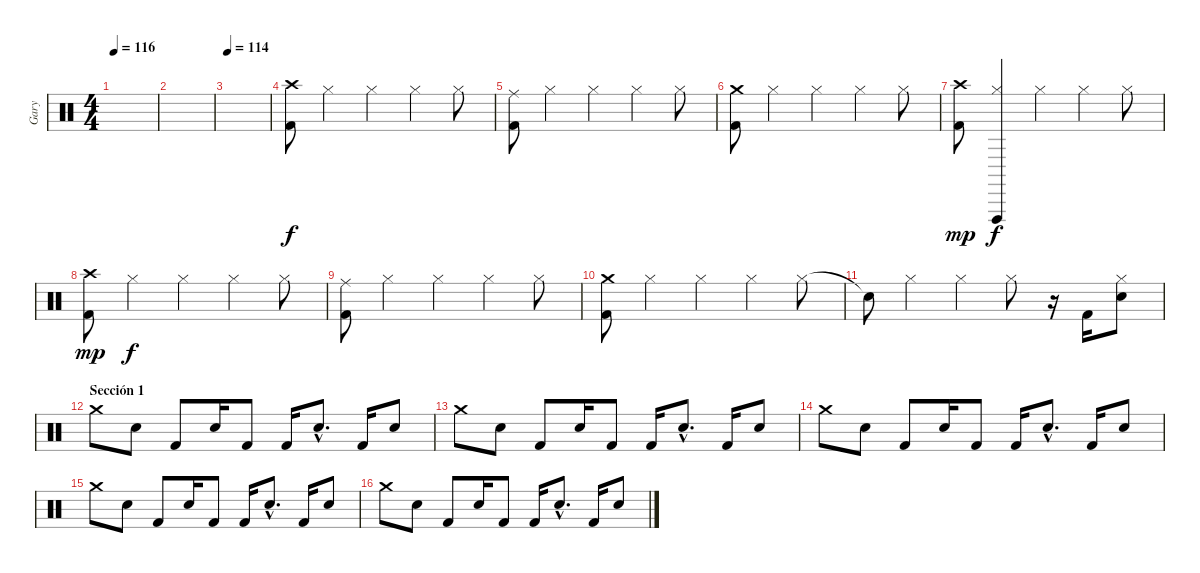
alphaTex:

\track ("Gary" "Gary") {instrument percussion}
\staff {score}
\articulation defaults
\ts (4 4)
\tempo 116
\tempo 106
\tempo 116
\clef neutral
\ks c
|
|
\tempo 114
|
("Crash high (hit)" "Kick (hit) 2").8 "Hi-Hat (closed)".4{dy f} "Hi-Hat (closed)".4 "Hi-Hat (closed)".4 "Hi-Hat (closed)".8 |
("Ride (middle)" "Kick (hit) 2").8 "Hi-Hat (closed)".4 "Hi-Hat (closed)".4 "Hi-Hat (closed)".4 "Hi-Hat (closed)".8 |
("Crash medium (hit)" "Kick (hit) 2").8 "Hi-Hat (closed)".4 "Hi-Hat (closed)".4 "Hi-Hat (closed)".4 "Hi-Hat (closed)".8 |
("Crash high (hit)" "Kick (hit) 2").8{dy mp} ("Hi-Hat (closed)" "Vibraslap (hit)").4{dy f} "Hi-Hat (closed)".4 "Hi-Hat (closed)".4 "Hi-Hat (closed)".8 |
("Crash high (hit)" "Kick (hit) 2").8{dy mp} "Hi-Hat (closed)".4{dy f} "Hi-Hat (closed)".4 "Hi-Hat (closed)".4 "Hi-Hat (closed)".8 |
("Ride (middle)" "Kick (hit) 2").8 "Hi-Hat (closed)".4 "Hi-Hat (closed)".4 "Hi-Hat (closed)".4 "Hi-Hat (closed)".8 |
("Crash medium (hit)" "Kick (hit) 2").8 "Hi-Hat (closed)".4 "Hi-Hat (closed)".4 "Hi-Hat (closed)".4 "Hi-Hat (closed)".8 |
"Snare (hit)"{t}.8 "Hi-Hat (closed)".4 "Hi-Hat (closed)".4 "Hi-Hat (closed)".8 r.16 "Kick (hit) 2".16 ("Hi-Hat (closed)" "Snare (hit) 2").8 |
\section ("" "Sección 1")
"Crash medium (hit)".8 "Snare (hit) 2".8 "Kick (hit) 2".8 "Snare (hit) 2".16 "Kick (hit) 2".8 "Kick (hit) 2".16 "Snare (hit) 2"{hac}.8{d} "Kick (hit) 2".16 "Snare (hit) 2".8 |
"Crash medium (hit)".8 "Snare (hit) 2".8 "Kick (hit) 2".8 "Snare (hit) 2".16 "Kick (hit) 2".8 "Kick (hit) 2".16 "Snare (hit) 2"{hac}.8{d} "Kick (hit) 2".16 "Snare (hit) 2".8 |
"Crash medium (hit)".8 "Snare (hit) 2".8 "Kick (hit) 2".8 "Snare (hit) 2".16 "Kick (hit) 2".8 "Kick (hit) 2".16 "Snare (hit) 2"{hac}.8{d} "Kick (hit) 2".16 "Snare (hit) 2".8 |
"Crash medium (hit)".8 "Snare (hit) 2".8 "Kick (hit) 2".8 "Snare (hit) 2".16 "Kick (hit) 2".8 "Kick (hit) 2".16 "Snare (hit) 2"{hac}.8{d} "Kick (hit) 2".16 "Snare (hit) 2".8 |
"Crash medium (hit)".8 "Snare (hit) 2".8 "Kick (hit) 2".8 "Snare (hit) 2".16 "Kick (hit) 2".8 "Kick (hit) 2".16 "Snare (hit) 2"{hac}.8{d} "Kick (hit) 2".16 "Snare (hit) 2".8
